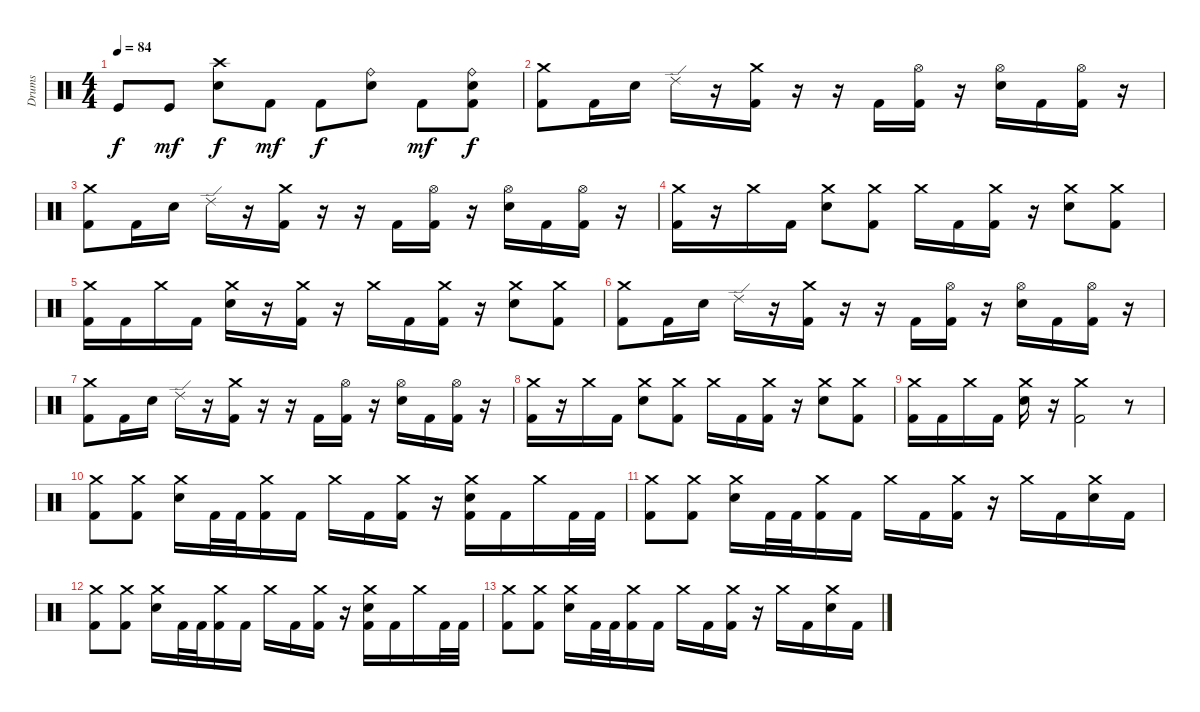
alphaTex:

\track ("Drums" "Drums") {instrument percussion}
\staff {score}
\articulation defaults
\ts (4 4)
\tempo 84
\clef neutral
\ks c "Kick (hit)".8{dy f} "Kick (hit)".8{dy mf}
("Crash high (hit)" "Electric Snare (hit)").8{dy f} "Kick (hit) 2".8{dy mf} "Kick (hit) 2".8{dy f} ("Ride (bell)" "Electric Snare (hit)").8 "Kick (hit) 2".8{dy mf} ("Ride (bell)" "Electric Snare (hit)" "Kick (hit) 2").8{dy f} |
("Crash medium (hit)" "Kick (hit) 2").8 "Kick (hit) 2".16 "Electric Snare (hit)".16 "Ride (edge) 2".16 r.16 ("Crash medium (hit)" "Kick (hit) 2").16 r.16 r.16 "Kick (hit) 2".16 ("Hi-Hat (open)" "Kick (hit) 2").16 r.16 ("Hi-Hat (open)" "Electric Snare (hit)").16 "Kick (hit) 2".16 ("Hi-Hat (open)" "Kick (hit) 2").16 r.16 |
("Crash medium (hit)" "Kick (hit) 2").8 "Kick (hit) 2".16 "Electric Snare (hit)".16 "Ride (edge) 2".16 r.16 ("Crash medium (hit)" "Kick (hit) 2").16 r.16 r.16 "Kick (hit) 2".16 ("Hi-Hat (open)" "Kick (hit) 2").16 r.16 ("Hi-Hat (open)" "Electric Snare (hit)").16 "Kick (hit) 2".16 ("Hi-Hat (open)" "Kick (hit) 2").16 r.16 |
("Crash medium (hit)" "Kick (hit) 2").16 r.16 "Crash medium (hit)".16 "Kick (hit) 2".16 ("Crash medium (hit)" "Electric Snare (hit)").8 ("Crash medium (hit)" "Kick (hit) 2").8 "Crash medium (hit)".16 "Kick (hit) 2".16 ("Crash medium (hit)" "Kick (hit) 2").16 r.16 ("Crash medium (hit)" "Electric Snare (hit)").8 ("Crash medium (hit)" "Kick (hit) 2").8 |
("Crash medium (hit)" "Kick (hit) 2").16 "Kick (hit) 2".16 "Crash medium (hit)".16 "Kick (hit) 2".16 ("Crash medium (hit)" "Electric Snare (hit)").16 r.16 ("Crash medium (hit)" "Kick (hit) 2").16 r.16 "Crash medium (hit)".16 "Kick (hit) 2".16 ("Crash medium (hit)" "Kick (hit) 2").16 r.16 ("Crash medium (hit)" "Electric Snare (hit)").8 ("Crash medium (hit)" "Kick (hit) 2").8 |
("Crash medium (hit)" "Kick (hit) 2").8 "Kick (hit) 2".16 "Electric Snare (hit)".16 "Ride (edge) 2".16 r.16 ("Crash medium (hit)" "Kick (hit) 2").16 r.16 r.16 "Kick (hit) 2".16 ("Hi-Hat (open)" "Kick (hit) 2").16 r.16 ("Hi-Hat (open)" "Electric Snare (hit)").16 "Kick (hit) 2".16 ("Hi-Hat (open)" "Kick (hit) 2").16 r.16 |
("Crash medium (hit)" "Kick (hit) 2").8 "Kick (hit) 2".16 "Electric Snare (hit)".16 "Ride (edge) 2".16 r.16 ("Crash medium (hit)" "Kick (hit) 2").16 r.16 r.16 "Kick (hit) 2".16 ("Hi-Hat (open)" "Kick (hit) 2").16 r.16 ("Hi-Hat (open)" "Electric Snare (hit)").16 "Kick (hit) 2".16 ("Hi-Hat (open)" "Kick (hit) 2").16 r.16 |
("Crash medium (hit)" "Kick (hit) 2").16 r.16 "Crash medium (hit)".16 "Kick (hit) 2".16 ("Crash medium (hit)" "Electric Snare (hit)").8 ("Crash medium (hit)" "Kick (hit) 2").8 "Crash medium (hit)".16 "Kick (hit) 2".16 ("Crash medium (hit)" "Kick (hit) 2").16 r.16 ("Crash medium (hit)" "Electric Snare (hit)").8 ("Crash medium (hit)" "Kick (hit) 2").8 |
("Crash medium (hit)" "Kick (hit) 2").16 "Kick (hit) 2".16 "Crash medium (hit)".16 "Kick (hit) 2".16 ("Crash medium (hit)" "Electric Snare (hit)").16 r.16 ("Crash medium (hit)" "Kick (hit) 2").2 r.8 |
("Crash medium (hit)" "Kick (hit) 2").8 ("Crash medium (hit)" "Kick (hit) 2").8 ("Crash medium (hit)" "Electric Snare (hit)").16 "Kick (hit) 2".32 "Kick (hit) 2".32 ("Crash medium (hit)" "Kick (hit) 2").16 "Kick (hit) 2".16 "Crash medium (hit)".16 "Kick (hit) 2".16 ("Crash medium (hit)" "Kick (hit) 2").16 r.16 ("Crash medium (hit)" "Electric Snare (hit)" "Kick (hit) 2").16 "Kick (hit) 2".16 "Crash medium (hit)".16 "Kick (hit) 2".32 "Kick (hit) 2".32 |
("Crash medium (hit)" "Kick (hit) 2").8 ("Crash medium (hit)" "Kick (hit) 2").8 ("Crash medium (hit)" "Electric Snare (hit)").16 "Kick (hit) 2".32 "Kick (hit) 2".32 ("Crash medium (hit)" "Kick (hit) 2").16 "Kick (hit) 2".16 "Crash medium (hit)".16 "Kick (hit) 2".16 ("Crash medium (hit)" "Kick (hit) 2").16 r.16 "Crash medium (hit)".16 "Kick (hit) 2".16 ("Crash medium (hit)" "Electric Snare (hit)").16 "Kick (hit) 2".16 |
("Crash medium (hit)" "Kick (hit) 2").8 ("Crash medium (hit)" "Kick (hit) 2").8 ("Crash medium (hit)" "Electric Snare (hit)").16 "Kick (hit) 2".32 "Kick (hit) 2".32 ("Crash medium (hit)" "Kick (hit) 2").16 "Kick (hit) 2".16 "Crash medium (hit)".16 "Kick (hit) 2".16 ("Crash medium (hit)" "Kick (hit) 2").16 r.16 ("Crash medium (hit)" "Electric Snare (hit)" "Kick (hit) 2").16 "Kick (hit) 2".16 "Crash medium (hit)".16 "Kick (hit) 2".32 "Kick (hit) 2".32 |
("Crash medium (hit)" "Kick (hit) 2").8 ("Crash medium (hit)" "Kick (hit) 2").8 ("Crash medium (hit)" "Electric Snare (hit)").16 "Kick (hit) 2".32 "Kick (hit) 2".32 ("Crash medium (hit)" "Kick (hit) 2").16 "Kick (hit) 2".16 "Crash medium (hit)".16 "Kick (hit) 2".16 ("Crash medium (hit)" "Kick (hit) 2").16 r.16 "Crash medium (hit)".16 "Kick (hit) 2".16 ("Crash medium (hit)" "Electric Snare (hit)").16 "Kick (hit) 2".16
